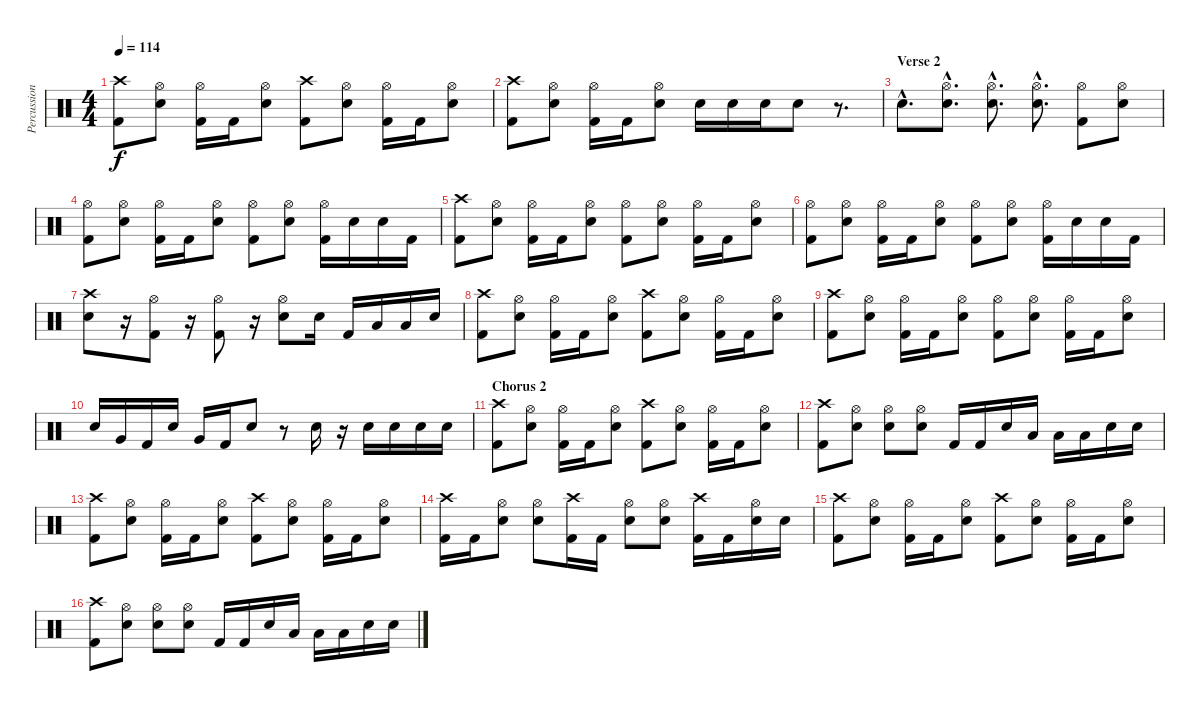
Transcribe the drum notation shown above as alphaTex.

\track ("Percussion" "Percussion") {instrument percussion}
\staff {score}
\articulation defaults
\ts (4 4)
\tempo 114
\clef neutral
\ks c
("Crash high (hit)" "Kick (hit) 2").8{dy f} ("Hi-Hat (open)" "Electric Snare (hit)").8 ("Hi-Hat (open)" "Kick (hit) 2").16 "Kick (hit) 2".16 ("Hi-Hat (open)" "Electric Snare (hit)").8 ("Crash high (hit)" "Kick (hit) 2").8 ("Hi-Hat (open)" "Electric Snare (hit)").8 ("Hi-Hat (open)" "Kick (hit) 2").16 "Kick (hit) 2".16 ("Hi-Hat (open)" "Electric Snare (hit)").8 |
("Crash high (hit)" "Kick (hit) 2").8 ("Hi-Hat (open)" "Electric Snare (hit)").8 ("Hi-Hat (open)" "Kick (hit) 2").16 "Kick (hit) 2".16 ("Hi-Hat (open)" "Electric Snare (hit)").8 "Electric Snare (hit)".16 "Electric Snare (hit)".16 "Electric Snare (hit)".16 "Electric Snare (hit)".8 r.8{d} |
\section ("" "Verse 2")
"Electric Snare (hit)"{hac}.8{d} ("Hi-Hat (open)"{hac} "Electric Snare (hit)"{hac}).8{d} ("Hi-Hat (open)"{hac} "Electric Snare (hit)"{hac}).8{d} ("Hi-Hat (open)"{hac} "Electric Snare (hit)"{hac}).8{d} ("Hi-Hat (open)" "Kick (hit) 2").8 ("Hi-Hat (open)" "Electric Snare (hit)").8 |
("Hi-Hat (open)" "Kick (hit) 2").8 ("Hi-Hat (open)" "Electric Snare (hit)").8 ("Hi-Hat (open)" "Kick (hit) 2").16 "Kick (hit) 2".16 ("Hi-Hat (open)" "Electric Snare (hit)").8 ("Hi-Hat (open)" "Kick (hit) 2").8 ("Hi-Hat (open)" "Electric Snare (hit)").8 ("Hi-Hat (open)" "Kick (hit) 2").16 "Electric Snare (hit)".16 "Electric Snare (hit)".16 "Kick (hit) 2".16 |
("Crash high (hit)" "Kick (hit) 2").8 ("Hi-Hat (open)" "Electric Snare (hit)").8 ("Hi-Hat (open)" "Kick (hit) 2").16 "Kick (hit) 2".16 ("Hi-Hat (open)" "Electric Snare (hit)").8 ("Hi-Hat (open)" "Kick (hit) 2").8 ("Hi-Hat (open)" "Electric Snare (hit)").8 ("Hi-Hat (open)" "Kick (hit) 2").16 "Kick (hit) 2".16 ("Hi-Hat (open)" "Electric Snare (hit)").8 |
("Hi-Hat (open)" "Kick (hit) 2").8 ("Hi-Hat (open)" "Electric Snare (hit)").8 ("Hi-Hat (open)" "Kick (hit) 2").16 "Kick (hit) 2".16 ("Hi-Hat (open)" "Electric Snare (hit)").8 ("Hi-Hat (open)" "Kick (hit) 2").8 ("Hi-Hat (open)" "Electric Snare (hit)").8 ("Hi-Hat (open)" "Kick (hit) 2").16 "Electric Snare (hit)".16 "Electric Snare (hit)".16 "Kick (hit) 2".16 |
("Crash high (hit)" "Electric Snare (hit)").8 r.16 ("Hi-Hat (open)" "Kick (hit) 2").8 r.16 ("Hi-Hat (open)" "Kick (hit) 2").8 r.16 ("Hi-Hat (open)" "Electric Snare (hit)").8 "Electric Snare (hit)".16 "Kick (hit) 2".16 "Low Tom (hit)".16 "Low Tom (hit)".16 "Electric Snare (hit)".16 |
("Crash high (hit)" "Kick (hit) 2").8 ("Hi-Hat (open)" "Electric Snare (hit)").8 ("Hi-Hat (open)" "Kick (hit) 2").16 "Kick (hit) 2".16 ("Hi-Hat (open)" "Electric Snare (hit)").8 ("Crash high (hit)" "Kick (hit) 2").8 ("Hi-Hat (open)" "Electric Snare (hit)").8 ("Hi-Hat (open)" "Kick (hit) 2").16 "Kick (hit) 2".16 ("Hi-Hat (open)" "Electric Snare (hit)").8 |
("Crash high (hit)" "Kick (hit) 2").8 ("Hi-Hat (open)" "Electric Snare (hit)").8 ("Hi-Hat (open)" "Kick (hit) 2").16 "Kick (hit) 2".16 ("Hi-Hat (open)" "Electric Snare (hit)").8 ("Hi-Hat (open)" "Kick (hit) 2").8 ("Hi-Hat (open)" "Electric Snare (hit)").8 ("Hi-Hat (open)" "Kick (hit) 2").16 "Kick (hit) 2".16 ("Hi-Hat (open)" "Electric Snare (hit)").8 |
"Electric Snare (hit)".16 "Very Low Tom (hit)".16 "Kick (hit) 2".16 "Electric Snare (hit)".16 "Very Low Tom (hit)".16 "Kick (hit) 2".16 "Electric Snare (hit)".8 r.8 "Electric Snare (hit)".16 r.16 "Electric Snare (hit)".16 "Electric Snare (hit)".16 "Electric Snare (hit)".16 "Electric Snare (hit)".16 |
\section ("" "Chorus 2")
("Crash high (hit)" "Kick (hit) 2").8 ("Hi-Hat (open)" "Electric Snare (hit)").8 ("Hi-Hat (open)" "Kick (hit) 2").16 "Kick (hit) 2".16 ("Hi-Hat (open)" "Electric Snare (hit)").8 ("Crash high (hit)" "Kick (hit) 2").8 ("Hi-Hat (open)" "Electric Snare (hit)").8 ("Hi-Hat (open)" "Kick (hit) 2").16 "Kick (hit) 2".16 ("Hi-Hat (open)" "Electric Snare (hit)").8 |
("Crash high (hit)" "Kick (hit) 2").8 ("Hi-Hat (open)" "Electric Snare (hit)").8 ("Hi-Hat (open)" "Electric Snare (hit)").8 ("Hi-Hat (open)" "Electric Snare (hit)").8 "Kick (hit) 2".16 "Kick (hit) 2".16 "Electric Snare (hit)".16 "Low Tom (hit)".16 "Low Tom (hit)".16 "Low Tom (hit)".16 "Electric Snare (hit)".16 "Electric Snare (hit)".16 |
("Crash high (hit)" "Kick (hit) 2").8 ("Hi-Hat (open)" "Electric Snare (hit)").8 ("Hi-Hat (open)" "Kick (hit) 2").16 "Kick (hit) 2".16 ("Hi-Hat (open)" "Electric Snare (hit)").8 ("Crash high (hit)" "Kick (hit) 2").8 ("Hi-Hat (open)" "Electric Snare (hit)").8 ("Hi-Hat (open)" "Kick (hit) 2").16 "Kick (hit) 2".16 ("Hi-Hat (open)" "Electric Snare (hit)").8 |
("Crash high (hit)" "Kick (hit) 2").16 "Kick (hit) 2".16 ("Hi-Hat (open)" "Electric Snare (hit)").8 ("Hi-Hat (open)" "Electric Snare (hit)").8 ("Crash high (hit)" "Kick (hit) 2").16 "Kick (hit) 2".16 ("Hi-Hat (open)" "Electric Snare (hit)").8 ("Hi-Hat (open)" "Electric Snare (hit)").8 ("Crash high (hit)" "Kick (hit) 2").16 "Kick (hit) 2".16 ("Hi-Hat (open)" "Electric Snare (hit)").16 "Electric Snare (hit)".16 |
("Crash high (hit)" "Kick (hit) 2").8 ("Hi-Hat (open)" "Electric Snare (hit)").8 ("Hi-Hat (open)" "Kick (hit) 2").16 "Kick (hit) 2".16 ("Hi-Hat (open)" "Electric Snare (hit)").8 ("Crash high (hit)" "Kick (hit) 2").8 ("Hi-Hat (open)" "Electric Snare (hit)").8 ("Hi-Hat (open)" "Kick (hit) 2").16 "Kick (hit) 2".16 ("Hi-Hat (open)" "Electric Snare (hit)").8 |
("Crash high (hit)" "Kick (hit) 2").8 ("Hi-Hat (open)" "Electric Snare (hit)").8 ("Hi-Hat (open)" "Electric Snare (hit)").8 ("Hi-Hat (open)" "Electric Snare (hit)").8 "Kick (hit) 2".16 "Kick (hit) 2".16 "Electric Snare (hit)".16 "Low Tom (hit)".16 "Low Tom (hit)".16 "Low Tom (hit)".16 "Electric Snare (hit)".16 "Electric Snare (hit)".16
